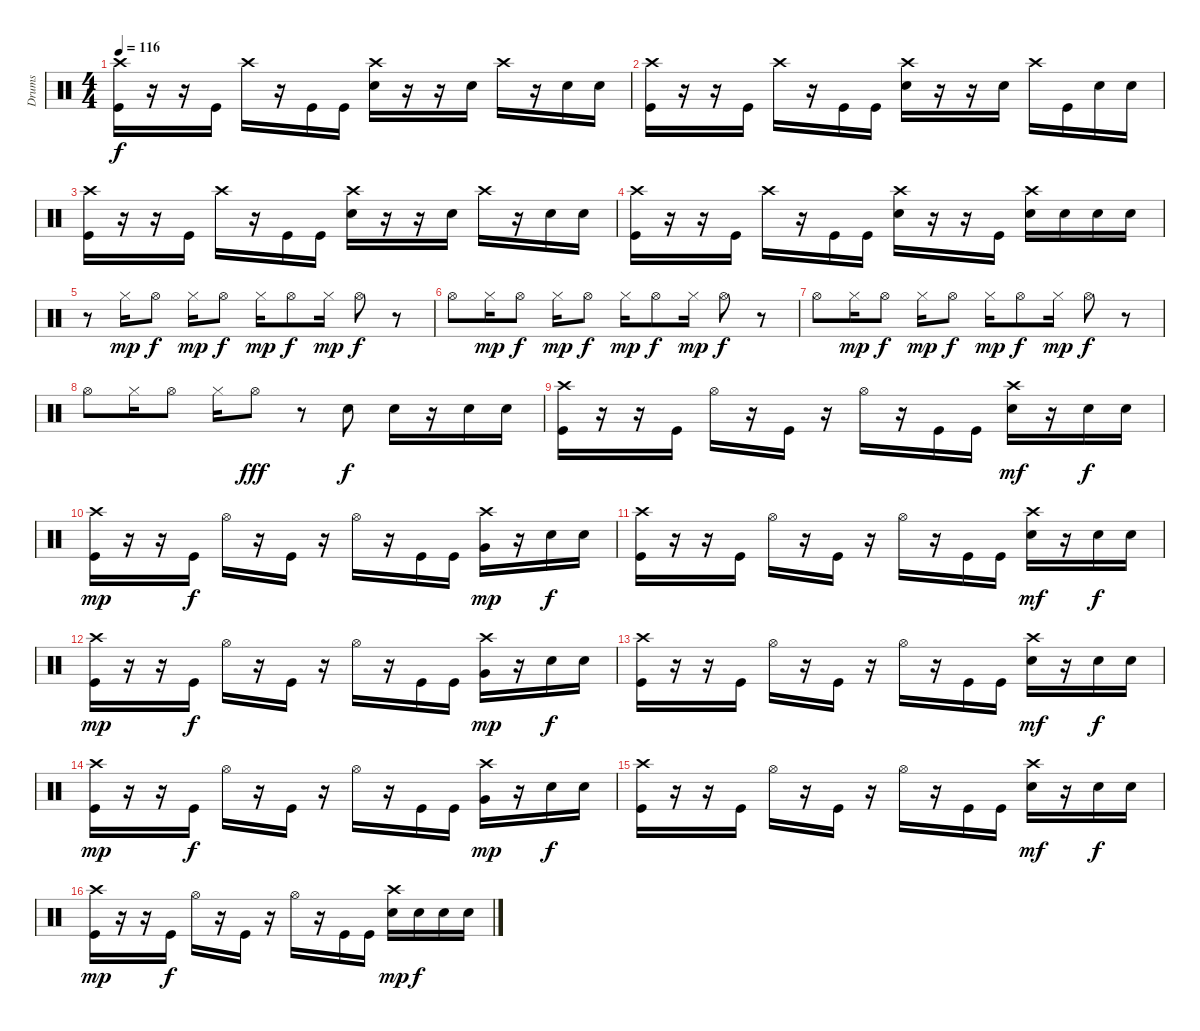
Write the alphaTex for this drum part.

\track ("Drums" "Drums") {instrument percussion}
\staff {score}
\articulation defaults
\ts (4 4)
\tempo 116
\clef neutral
\ks c
("Crash high (hit)" "Kick (hit)").16{dy f} r.16 r.16 "Kick (hit)".16 "Crash high (hit)".16 r.16 "Kick (hit)".16 "Kick (hit)".16 ("Crash high (hit)" "Snare (hit) 2").16 r.16 r.16 "Snare (hit) 2".16 "Crash high (hit)".16 r.16 "Snare (hit) 2".16 "Snare (hit) 2".16 |
("Crash high (hit)" "Kick (hit)").16 r.16 r.16 "Kick (hit)".16 "Crash high (hit)".16 r.16 "Kick (hit)".16 "Kick (hit)".16 ("Crash high (hit)" "Snare (hit) 2").16 r.16 r.16 "Snare (hit) 2".16 "Crash high (hit)".16 "Kick (hit)".16 "Snare (hit) 2".16 "Snare (hit) 2".16 |
("Crash high (hit)" "Kick (hit)").16 r.16 r.16 "Kick (hit)".16 "Crash high (hit)".16 r.16 "Kick (hit)".16 "Kick (hit)".16 ("Crash high (hit)" "Snare (hit) 2").16 r.16 r.16 "Snare (hit) 2".16 "Crash high (hit)".16 r.16 "Snare (hit) 2".16 "Snare (hit) 2".16 |
("Crash high (hit)" "Kick (hit)").16 r.16 r.16 "Kick (hit)".16 "Crash high (hit)".16 r.16 "Kick (hit)".16 "Kick (hit)".16 ("Crash high (hit)" "Snare (hit) 2").16 r.16 r.16 "Kick (hit)".16 ("Crash high (hit)" "Snare (hit) 2").16 "Snare (hit) 2".16 "Snare (hit) 2".16 "Snare (hit) 2".16 |
r.8 "Hi-Hat (closed)".16{dy mp} "Hi-Hat (open)".8{dy f} "Hi-Hat (closed)".16{dy mp} "Hi-Hat (open)".8{dy f} "Hi-Hat (closed)".16{dy mp} "Hi-Hat (open)".8{dy f} "Hi-Hat (closed)".16{dy mp} "Hi-Hat (open)".8{dy f} r.8 |
"Hi-Hat (open)".8 "Hi-Hat (closed)".16{dy mp} "Hi-Hat (open)".8{dy f} "Hi-Hat (closed)".16{dy mp} "Hi-Hat (open)".8{dy f} "Hi-Hat (closed)".16{dy mp} "Hi-Hat (open)".8{dy f} "Hi-Hat (closed)".16{dy mp} "Hi-Hat (open)".8{dy f} r.8 |
"Hi-Hat (open)".8 "Hi-Hat (closed)".16{dy mp} "Hi-Hat (open)".8{dy f} "Hi-Hat (closed)".16{dy mp} "Hi-Hat (open)".8{dy f} "Hi-Hat (closed)".16{dy mp} "Hi-Hat (open)".8{dy f} "Hi-Hat (closed)".16{dy mp} "Hi-Hat (open)".8{dy f} r.8 |
"Hi-Hat (open)".8 "Hi-Hat (closed)".16 "Hi-Hat (open)".8 "Hi-Hat (closed)".16 "Hi-Hat (open)".8{dy fff} r.8 "Snare (hit) 2".8{dy f} "Snare (hit) 2".16 r.16 "Snare (hit) 2".16 "Snare (hit) 2".16 |
("Crash high (hit)" "Kick (hit)").16 r.16 r.16 "Kick (hit)".16 "Hi-Hat (open)".16 r.16 "Kick (hit)".16 r.16 "Hi-Hat (open)".16 r.16 "Kick (hit)".16 "Kick (hit)".16 ("Crash high (hit)" "Snare (hit) 2").16{dy mf} r.16 "Snare (hit) 2".16{dy f} "Snare (hit) 2".16 |
("Crash high (hit)" "Kick (hit)").16{dy mp} r.16 r.16 "Kick (hit)".16{dy f} "Hi-Hat (open)".16 r.16 "Kick (hit)".16 r.16 "Hi-Hat (open)".16 r.16 "Kick (hit)".16 "Kick (hit)".16 ("Crash high (hit)" "Very Low Tom (hit)").16{dy mp} r.16 "Snare (hit) 2".16{dy f} "Snare (hit) 2".16 |
("Crash high (hit)" "Kick (hit)").16 r.16 r.16 "Kick (hit)".16 "Hi-Hat (open)".16 r.16 "Kick (hit)".16 r.16 "Hi-Hat (open)".16 r.16 "Kick (hit)".16 "Kick (hit)".16 ("Crash high (hit)" "Snare (hit) 2").16{dy mf} r.16 "Snare (hit) 2".16{dy f} "Snare (hit) 2".16 |
("Crash high (hit)" "Kick (hit)").16{dy mp} r.16 r.16 "Kick (hit)".16{dy f} "Hi-Hat (open)".16 r.16 "Kick (hit)".16 r.16 "Hi-Hat (open)".16 r.16 "Kick (hit)".16 "Kick (hit)".16 ("Crash high (hit)" "Very Low Tom (hit)").16{dy mp} r.16 "Snare (hit) 2".16{dy f} "Snare (hit) 2".16 |
("Crash high (hit)" "Kick (hit)").16 r.16 r.16 "Kick (hit)".16 "Hi-Hat (open)".16 r.16 "Kick (hit)".16 r.16 "Hi-Hat (open)".16 r.16 "Kick (hit)".16 "Kick (hit)".16 ("Crash high (hit)" "Snare (hit) 2").16{dy mf} r.16 "Snare (hit) 2".16{dy f} "Snare (hit) 2".16 |
("Crash high (hit)" "Kick (hit)").16{dy mp} r.16 r.16 "Kick (hit)".16{dy f} "Hi-Hat (open)".16 r.16 "Kick (hit)".16 r.16 "Hi-Hat (open)".16 r.16 "Kick (hit)".16 "Kick (hit)".16 ("Crash high (hit)" "Very Low Tom (hit)").16{dy mp} r.16 "Snare (hit) 2".16{dy f} "Snare (hit) 2".16 |
("Crash high (hit)" "Kick (hit)").16 r.16 r.16 "Kick (hit)".16 "Hi-Hat (open)".16 r.16 "Kick (hit)".16 r.16 "Hi-Hat (open)".16 r.16 "Kick (hit)".16 "Kick (hit)".16 ("Crash high (hit)" "Snare (hit) 2").16{dy mf} r.16 "Snare (hit) 2".16{dy f} "Snare (hit) 2".16 |
("Crash high (hit)" "Kick (hit)").16{dy mp} r.16 r.16 "Kick (hit)".16{dy f} "Hi-Hat (open)".16 r.16 "Kick (hit)".16 r.16 "Hi-Hat (open)".16 r.16 "Kick (hit)".16 "Kick (hit)".16 ("Crash high (hit)" "Snare (hit) 2").16{dy mp} "Snare (hit) 2".16{dy f} "Snare (hit) 2".16 "Snare (hit) 2".16
